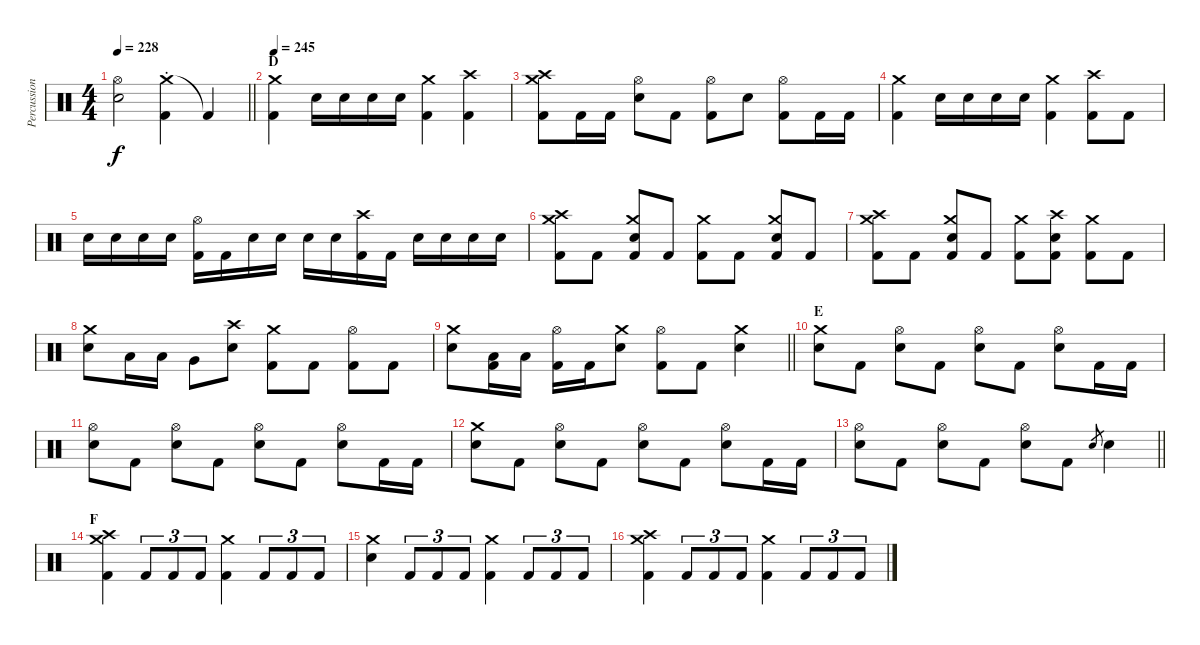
\track ("Percussion" "Percussion") {instrument percussion}
\staff {score}
\articulation defaults
\ts (4 4)
\tempo 228
\clef neutral
\barLineRight lightlight
\ks c
("Hi-Hat (open)" "Electric Snare (hit)").2{dy f} ("Crash medium (hit)"{st} "Kick (hit) 2").4 "Kick (hit) 2"{t}.4{volume 0} |
\section ("" "D")
\tempo 245
("Crash medium (hit)" "Kick (hit) 2").4{volume 14} "Electric Snare (hit)".16 "Electric Snare (hit)".16 "Electric Snare (hit)".16 "Electric Snare (hit)".16 ("Crash medium (hit)" "Kick (hit) 2").4 ("Crash high (hit)" "Kick (hit) 2").4 |
("Crash medium (hit)" "Crash high (hit)" "Kick (hit) 2").8 "Kick (hit) 2".16 "Kick (hit) 2".16 ("Hi-Hat (open)" "Electric Snare (hit)").8 "Kick (hit) 2".8 ("Hi-Hat (open)" "Kick (hit) 2").8 "Electric Snare (hit)".8 ("Hi-Hat (open)" "Kick (hit) 2").8 "Kick (hit) 2".16 "Kick (hit) 2".16 |
("Crash medium (hit)" "Kick (hit) 2").4 "Electric Snare (hit)".16 "Electric Snare (hit)".16 "Electric Snare (hit)".16 "Electric Snare (hit)".16 ("Crash medium (hit)" "Kick (hit) 2").4 ("Crash high (hit)" "Kick (hit) 2").8 "Kick (hit) 2".8 |
"Electric Snare (hit)".16 "Electric Snare (hit)".16 "Electric Snare (hit)".16 "Electric Snare (hit)".16 ("Hi-Hat (open)" "Kick (hit) 2").16 "Kick (hit) 2".16 "Electric Snare (hit)".16 "Electric Snare (hit)".16 "Electric Snare (hit)".16 "Electric Snare (hit)".16 ("Crash high (hit)" "Kick (hit) 2").16 "Kick (hit) 2".16 "Electric Snare (hit)".16 "Electric Snare (hit)".16 "Electric Snare (hit)".16 "Electric Snare (hit)".16 |
("Crash medium (hit)" "Crash high (hit)" "Kick (hit) 2").8 "Kick (hit) 2".8 ("Crash medium (hit)" "Electric Snare (hit)" "Kick (hit) 2").8 "Kick (hit) 2".8 ("Crash medium (hit)" "Kick (hit) 2").8 "Kick (hit) 2".8 ("Crash medium (hit)" "Electric Snare (hit)" "Kick (hit) 2").8 "Kick (hit) 2".8 |
("Crash medium (hit)" "Crash high (hit)" "Kick (hit) 2").8 "Kick (hit) 2".8 ("Crash medium (hit)" "Electric Snare (hit)" "Kick (hit) 2").8 "Kick (hit) 2".8 ("Crash medium (hit)" "Kick (hit) 2").8 ("Crash high (hit)" "Electric Snare (hit)" "Kick (hit) 2").8 ("Crash medium (hit)" "Kick (hit) 2").8 "Kick (hit) 2".8 |
("Crash medium (hit)" "Electric Snare (hit)").8 "Low Tom (hit)".16 "Low Tom (hit)".16 "Very Low Tom (hit)".8 ("Crash high (hit)" "Electric Snare (hit)").8 ("Crash medium (hit)" "Kick (hit) 2").8 "Kick (hit) 2".8 ("Hi-Hat (open)" "Kick (hit) 2").8 "Kick (hit) 2".8 |
\barLineRight lightlight
("Crash medium (hit)" "Electric Snare (hit)").8 ("Low Tom (hit)" "Kick (hit) 2").16 "Low Tom (hit)".16 ("Hi-Hat (open)" "Kick (hit) 2").16 "Kick (hit) 2".16 ("Crash medium (hit)" "Electric Snare (hit)").8 ("Hi-Hat (open)" "Kick (hit) 2").8 "Kick (hit) 2".8 ("Crash medium (hit)" "Electric Snare (hit)").4 |
\section ("" "E")
("Crash medium (hit)" "Electric Snare (hit)").8 "Kick (hit) 2".8 ("Hi-Hat (open)" "Electric Snare (hit)").8 "Kick (hit) 2".8 ("Hi-Hat (open)" "Electric Snare (hit)").8 "Kick (hit) 2".8 ("Hi-Hat (open)" "Electric Snare (hit)").8 "Kick (hit) 2".16 "Kick (hit) 2".16 |
("Hi-Hat (open)" "Electric Snare (hit)").8 "Kick (hit) 2".8 ("Hi-Hat (open)" "Electric Snare (hit)").8 "Kick (hit) 2".8 ("Hi-Hat (open)" "Electric Snare (hit)").8 "Kick (hit) 2".8 ("Hi-Hat (open)" "Electric Snare (hit)").8 "Kick (hit) 2".16 "Kick (hit) 2".16 |
("Crash medium (hit)" "Electric Snare (hit)").8 "Kick (hit) 2".8 ("Hi-Hat (open)" "Electric Snare (hit)").8 "Kick (hit) 2".8 ("Hi-Hat (open)" "Electric Snare (hit)").8 "Kick (hit) 2".8 ("Hi-Hat (open)" "Electric Snare (hit)").8 "Kick (hit) 2".16 "Kick (hit) 2".16 |
\barLineRight lightlight
("Hi-Hat (open)" "Electric Snare (hit)").8 "Kick (hit) 2".8 ("Hi-Hat (open)" "Electric Snare (hit)").8 "Kick (hit) 2".8 ("Hi-Hat (open)" "Electric Snare (hit)").8 "Kick (hit) 2".8 "Electric Snare (hit)".8{gr} "Electric Snare (hit)".4 |
\section ("" "F")
("Crash medium (hit)" "Crash high (hit)" "Kick (hit) 2").4 "Kick (hit) 2".8{tu (3 2)} "Kick (hit) 2".8{tu (3 2)} "Kick (hit) 2".8{tu (3 2)} ("Crash medium (hit)" "Kick (hit) 2").4 "Kick (hit) 2".8{tu (3 2)} "Kick (hit) 2".8{tu (3 2)} "Kick (hit) 2".8{tu (3 2)} |
("Crash medium (hit)" "Electric Snare (hit)").4 "Kick (hit) 2".8{tu (3 2)} "Kick (hit) 2".8{tu (3 2)} "Kick (hit) 2".8{tu (3 2)} ("Crash medium (hit)" "Kick (hit) 2").4 "Kick (hit) 2".8{tu (3 2)} "Kick (hit) 2".8{tu (3 2)} "Kick (hit) 2".8{tu (3 2)} |
("Crash medium (hit)" "Crash high (hit)" "Kick (hit) 2").4 "Kick (hit) 2".8{tu (3 2)} "Kick (hit) 2".8{tu (3 2)} "Kick (hit) 2".8{tu (3 2)} ("Crash medium (hit)" "Kick (hit) 2").4 "Kick (hit) 2".8{tu (3 2)} "Kick (hit) 2".8{tu (3 2)} "Kick (hit) 2".8{tu (3 2)}
